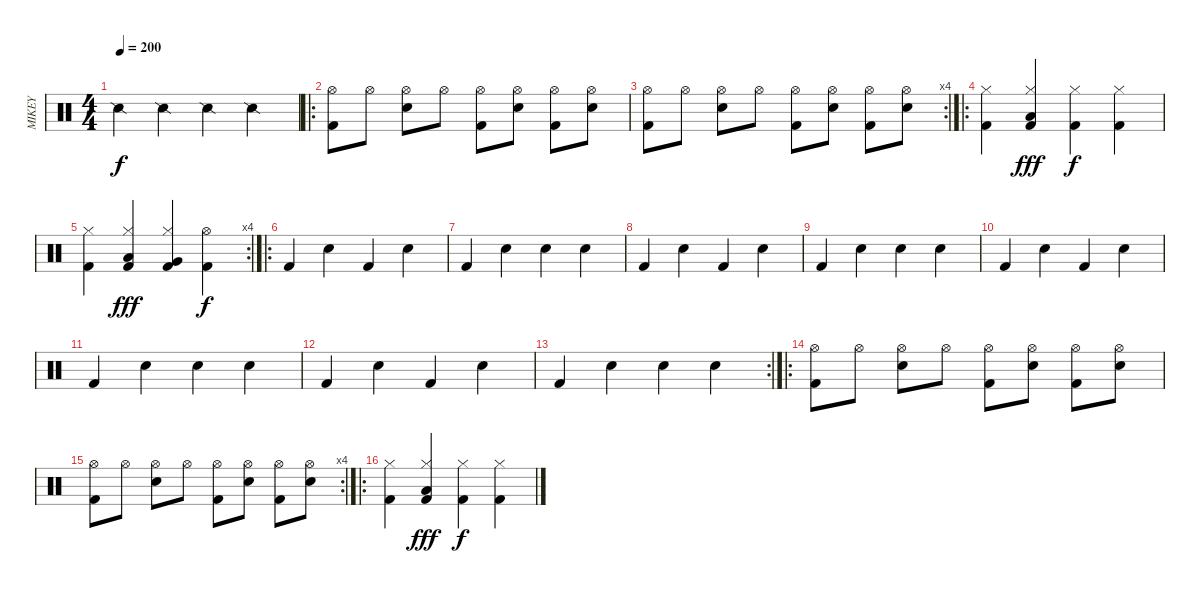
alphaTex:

\track ("MIKEY" "MIKEY") {instrument percussion}
\staff {score}
\articulation defaults
\ts (4 4)
\tempo 200
\clef neutral
\ks c "Snare (side stick) 2".4{dy f} "Snare (side stick) 2".4 "Snare (side stick) 2".4 "Snare (side stick) 2".4
|
\ro
("Hi-Hat (open)" "Kick (hit) 2").8 "Hi-Hat (open)".8 ("Hi-Hat (open)" "Electric Snare (hit)").8 "Hi-Hat (open)".8 ("Hi-Hat (open)" "Kick (hit) 2").8 ("Hi-Hat (open)" "Electric Snare (hit)").8 ("Hi-Hat (open)" "Kick (hit) 2").8 ("Hi-Hat (open)" "Electric Snare (hit)").8 |
\rc 4
("Hi-Hat (open)" "Kick (hit) 2").8 "Hi-Hat (open)".8 ("Hi-Hat (open)" "Electric Snare (hit)").8 "Hi-Hat (open)".8 ("Hi-Hat (open)" "Kick (hit) 2").8 ("Hi-Hat (open)" "Electric Snare (hit)").8 ("Hi-Hat (open)" "Kick (hit) 2").8 ("Hi-Hat (open)" "Electric Snare (hit)").8 |
\ro
("Hi-Hat (closed)" "Kick (hit) 2").4 ("Hi-Hat (closed)" "Low Tom (hit)" "Kick (hit) 2").4{dy fff} ("Hi-Hat (closed)" "Kick (hit) 2").4{dy f} ("Hi-Hat (closed)" "Kick (hit) 2").4 |
\rc 4
("Hi-Hat (closed)" "Kick (hit) 2").4 ("Hi-Hat (closed)" "Low Tom (hit)" "Kick (hit) 2").4{dy fff} ("Hi-Hat (closed)" "Very Low Tom (hit)" "Kick (hit) 2").4 ("Hi-Hat (open)" "Kick (hit) 2").4{dy f} |
\ro "Kick (hit) 2".4 "Snare (hit) 2".4 "Kick (hit) 2".4 "Snare (hit) 2".4
|
"Kick (hit) 2".4 "Snare (hit) 2".4 "Snare (hit) 2".4 "Snare (hit) 2".4 |
"Kick (hit) 2".4 "Snare (hit) 2".4 "Kick (hit) 2".4 "Snare (hit) 2".4 |
"Kick (hit) 2".4 "Snare (hit) 2".4 "Snare (hit) 2".4 "Snare (hit) 2".4 |
"Kick (hit) 2".4 "Snare (hit) 2".4 "Kick (hit) 2".4 "Snare (hit) 2".4 |
"Kick (hit) 2".4 "Snare (hit) 2".4 "Snare (hit) 2".4 "Snare (hit) 2".4 |
"Kick (hit) 2".4 "Snare (hit) 2".4 "Kick (hit) 2".4 "Snare (hit) 2".4 |
\rc 2 "Kick (hit) 2".4 "Snare (hit) 2".4 "Snare (hit) 2".4 "Snare (hit) 2".4
|
\ro
("Hi-Hat (open)" "Kick (hit) 2").8 "Hi-Hat (open)".8 ("Hi-Hat (open)" "Electric Snare (hit)").8 "Hi-Hat (open)".8 ("Hi-Hat (open)" "Kick (hit) 2").8 ("Hi-Hat (open)" "Electric Snare (hit)").8 ("Hi-Hat (open)" "Kick (hit) 2").8 ("Hi-Hat (open)" "Electric Snare (hit)").8 |
\rc 4
("Hi-Hat (open)" "Kick (hit) 2").8 "Hi-Hat (open)".8 ("Hi-Hat (open)" "Electric Snare (hit)").8 "Hi-Hat (open)".8 ("Hi-Hat (open)" "Kick (hit) 2").8 ("Hi-Hat (open)" "Electric Snare (hit)").8 ("Hi-Hat (open)" "Kick (hit) 2").8 ("Hi-Hat (open)" "Electric Snare (hit)").8 |
\ro
("Hi-Hat (closed)" "Kick (hit) 2").4 ("Hi-Hat (closed)" "Low Tom (hit)" "Kick (hit) 2").4{dy fff} ("Hi-Hat (closed)" "Kick (hit) 2").4{dy f} ("Hi-Hat (closed)" "Kick (hit) 2").4
